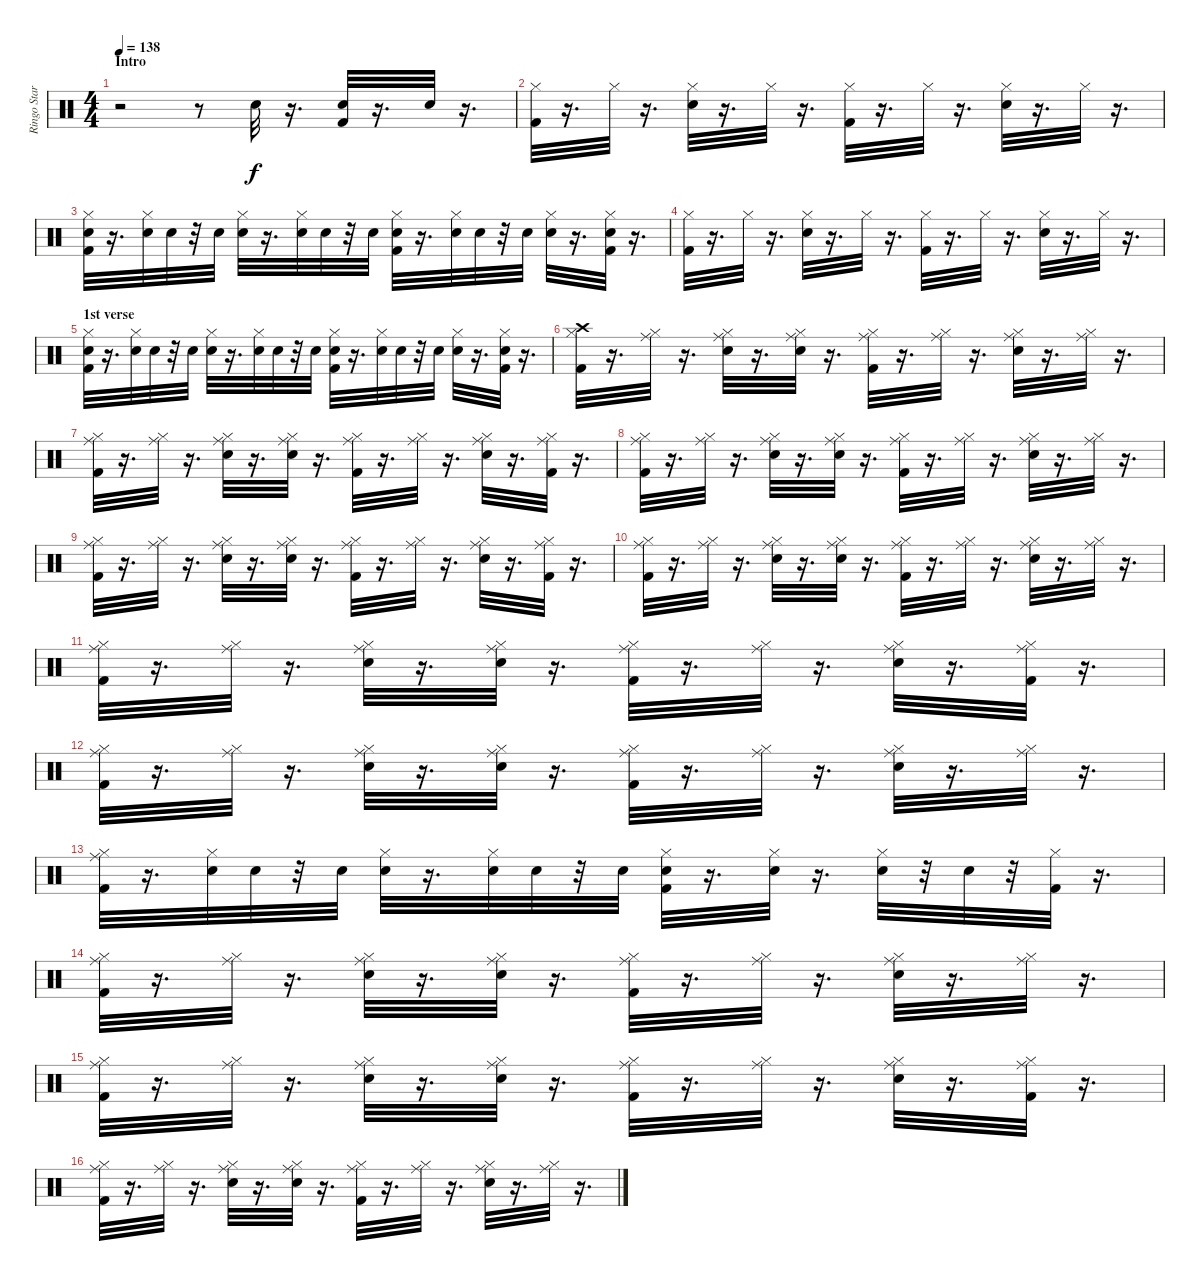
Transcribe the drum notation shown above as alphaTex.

\track ("Ringo Starr" "Ringo Star") {instrument percussion}
\staff {score}
\articulation defaults
\ts (4 4)
\section ("" "Intro")
\tempo 138
\clef neutral
\ks c
r.2{dy f} r.8 "Snare (hit) 2".32 r.16{d} ("Kick (hit) 2" "Snare (hit) 2").32 r.16{d} "Snare (hit) 2".32 r.16{d} |
("Kick (hit) 2" "Hi-Hat (closed)").32 r.16{d} "Hi-Hat (closed)".32 r.16{d} ("Snare (hit) 2" "Hi-Hat (closed)").32 r.16{d} "Hi-Hat (closed)".32 r.16{d} ("Kick (hit) 2" "Hi-Hat (closed)").32 r.16{d} "Hi-Hat (closed)".32 r.16{d} ("Snare (hit) 2" "Hi-Hat (closed)").32 r.16{d} "Hi-Hat (closed)".32 r.16{d} |
("Kick (hit) 2" "Snare (hit) 2" "Hi-Hat (closed)").32 r.16{d} ("Snare (hit) 2" "Hi-Hat (closed)").32 "Snare (hit) 2".32 r.32 "Snare (hit) 2".32 ("Snare (hit) 2" "Hi-Hat (closed)").32 r.16{d} ("Snare (hit) 2" "Hi-Hat (closed)").32 "Snare (hit) 2".32 r.32 "Snare (hit) 2".32 ("Kick (hit) 2" "Snare (hit) 2" "Hi-Hat (closed)").32 r.16{d} ("Snare (hit) 2" "Hi-Hat (closed)").32 "Snare (hit) 2".32 r.32 "Snare (hit) 2".32 ("Snare (hit) 2" "Hi-Hat (closed)").32 r.16{d} ("Kick (hit) 2" "Snare (hit) 2" "Hi-Hat (closed)").32 r.16{d} |
("Kick (hit) 2" "Hi-Hat (closed)").32 r.16{d} "Hi-Hat (closed)".32 r.16{d} ("Snare (hit) 2" "Hi-Hat (closed)").32 r.16{d} "Hi-Hat (closed)".32 r.16{d} ("Kick (hit) 2" "Hi-Hat (closed)").32 r.16{d} "Hi-Hat (closed)".32 r.16{d} ("Snare (hit) 2" "Hi-Hat (closed)").32 r.16{d} "Hi-Hat (closed)".32 r.16{d} |
\section ("" "1st verse")
("Kick (hit) 2" "Snare (hit) 2" "Hi-Hat (closed)").32 r.16{d} ("Snare (hit) 2" "Hi-Hat (closed)").32 "Snare (hit) 2".32 r.32 "Snare (hit) 2".32 ("Snare (hit) 2" "Hi-Hat (closed)").32 r.16{d} ("Snare (hit) 2" "Hi-Hat (closed)").32 "Snare (hit) 2".32 r.32 "Snare (hit) 2".32 ("Kick (hit) 2" "Snare (hit) 2" "Hi-Hat (closed)").32 r.16{d} ("Snare (hit) 2" "Hi-Hat (closed)").32 "Snare (hit) 2".32 r.32 "Snare (hit) 2".32 ("Snare (hit) 2" "Hi-Hat (closed)").32 r.16{d} ("Kick (hit) 2" "Snare (hit) 2" "Hi-Hat (closed)").32 r.16{d} |
("Kick (hit) 2" "Hi-Hat (closed)" "Crash high (hit)").32 r.16{d} ("Hi-Hat (closed)" "Ride (middle)").32 r.16{d} ("Snare (hit) 2" "Ride (middle)" "Hi-Hat (closed)").32 r.16{d} ("Snare (hit) 2" "Ride (middle)" "Hi-Hat (closed)").32 r.16{d} ("Kick (hit) 2" "Ride (middle)" "Hi-Hat (closed)").32 r.16{d} ("Hi-Hat (closed)" "Ride (middle)").32 r.16{d} ("Snare (hit) 2" "Ride (middle)" "Hi-Hat (closed)").32 r.16{d} ("Hi-Hat (closed)" "Ride (middle)").32 r.16{d} |
("Kick (hit) 2" "Ride (middle)" "Hi-Hat (closed)").32 r.16{d} ("Hi-Hat (closed)" "Ride (middle)").32 r.16{d} ("Snare (hit) 2" "Ride (middle)" "Hi-Hat (closed)").32 r.16{d} ("Snare (hit) 2" "Ride (middle)" "Hi-Hat (closed)").32 r.16{d} ("Kick (hit) 2" "Ride (middle)" "Hi-Hat (closed)").32 r.16{d} ("Hi-Hat (closed)" "Ride (middle)").32 r.16{d} ("Snare (hit) 2" "Ride (middle)" "Hi-Hat (closed)").32 r.16{d} ("Kick (hit) 2" "Ride (middle)" "Hi-Hat (closed)").32 r.16{d} |
("Kick (hit) 2" "Ride (middle)" "Hi-Hat (closed)").32 r.16{d} ("Hi-Hat (closed)" "Ride (middle)").32 r.16{d} ("Snare (hit) 2" "Ride (middle)" "Hi-Hat (closed)").32 r.16{d} ("Snare (hit) 2" "Ride (middle)" "Hi-Hat (closed)").32 r.16{d} ("Kick (hit) 2" "Ride (middle)" "Hi-Hat (closed)").32 r.16{d} ("Hi-Hat (closed)" "Ride (middle)").32 r.16{d} ("Snare (hit) 2" "Ride (middle)" "Hi-Hat (closed)").32 r.16{d} ("Hi-Hat (closed)" "Ride (middle)").32 r.16{d} |
("Kick (hit) 2" "Ride (middle)" "Hi-Hat (closed)").32 r.16{d} ("Hi-Hat (closed)" "Ride (middle)").32 r.16{d} ("Snare (hit) 2" "Ride (middle)" "Hi-Hat (closed)").32 r.16{d} ("Snare (hit) 2" "Ride (middle)" "Hi-Hat (closed)").32 r.16{d} ("Kick (hit) 2" "Ride (middle)" "Hi-Hat (closed)").32 r.16{d} ("Hi-Hat (closed)" "Ride (middle)").32 r.16{d} ("Snare (hit) 2" "Ride (middle)" "Hi-Hat (closed)").32 r.16{d} ("Kick (hit) 2" "Ride (middle)" "Hi-Hat (closed)").32 r.16{d} |
("Kick (hit) 2" "Hi-Hat (closed)" "Ride (middle)").32 r.16{d} ("Hi-Hat (closed)" "Ride (middle)").32 r.16{d} ("Snare (hit) 2" "Ride (middle)" "Hi-Hat (closed)").32 r.16{d} ("Snare (hit) 2" "Ride (middle)" "Hi-Hat (closed)").32 r.16{d} ("Kick (hit) 2" "Ride (middle)" "Hi-Hat (closed)").32 r.16{d} ("Hi-Hat (closed)" "Ride (middle)").32 r.16{d} ("Snare (hit) 2" "Ride (middle)" "Hi-Hat (closed)").32 r.16{d} ("Hi-Hat (closed)" "Ride (middle)").32 r.16{d} |
("Kick (hit) 2" "Ride (middle)" "Hi-Hat (closed)").32 r.16{d} ("Hi-Hat (closed)" "Ride (middle)").32 r.16{d} ("Snare (hit) 2" "Ride (middle)" "Hi-Hat (closed)").32 r.16{d} ("Snare (hit) 2" "Ride (middle)" "Hi-Hat (closed)").32 r.16{d} ("Kick (hit) 2" "Ride (middle)" "Hi-Hat (closed)").32 r.16{d} ("Hi-Hat (closed)" "Ride (middle)").32 r.16{d} ("Snare (hit) 2" "Ride (middle)" "Hi-Hat (closed)").32 r.16{d} ("Kick (hit) 2" "Ride (middle)" "Hi-Hat (closed)").32 r.16{d} |
("Kick (hit) 2" "Hi-Hat (closed)" "Ride (middle)").32 r.16{d} ("Hi-Hat (closed)" "Ride (middle)").32 r.16{d} ("Snare (hit) 2" "Ride (middle)" "Hi-Hat (closed)").32 r.16{d} ("Snare (hit) 2" "Ride (middle)" "Hi-Hat (closed)").32 r.16{d} ("Kick (hit) 2" "Ride (middle)" "Hi-Hat (closed)").32 r.16{d} ("Hi-Hat (closed)" "Ride (middle)").32 r.16{d} ("Snare (hit) 2" "Ride (middle)" "Hi-Hat (closed)").32 r.16{d} ("Hi-Hat (closed)" "Ride (middle)").32 r.16{d} |
("Kick (hit) 2" "Ride (middle)" "Hi-Hat (closed)").32 r.16{d} ("Snare (hit) 2" "Hi-Hat (closed)").32 "Snare (hit) 2".32 r.32 "Snare (hit) 2".32 ("Snare (hit) 2" "Hi-Hat (closed)").32 r.16{d} ("Snare (hit) 2" "Hi-Hat (closed)").32 "Snare (hit) 2".32 r.32 "Snare (hit) 2".32 ("Kick (hit) 2" "Snare (hit) 2" "Hi-Hat (closed)").32 r.16{d} ("Snare (hit) 2" "Hi-Hat (closed)").32 r.16{d} ("Snare (hit) 2" "Hi-Hat (closed)").32 r.32 "Snare (hit) 2".32 r.32 ("Kick (hit) 2" "Hi-Hat (closed)").32 r.16{d} |
("Kick (hit) 2" "Hi-Hat (closed)" "Ride (middle)").32 r.16{d} ("Hi-Hat (closed)" "Ride (middle)").32 r.16{d} ("Snare (hit) 2" "Ride (middle)" "Hi-Hat (closed)").32 r.16{d} ("Snare (hit) 2" "Ride (middle)" "Hi-Hat (closed)").32 r.16{d} ("Kick (hit) 2" "Ride (middle)" "Hi-Hat (closed)").32 r.16{d} ("Hi-Hat (closed)" "Ride (middle)").32 r.16{d} ("Snare (hit) 2" "Ride (middle)" "Hi-Hat (closed)").32 r.16{d} ("Hi-Hat (closed)" "Ride (middle)").32 r.16{d} |
("Kick (hit) 2" "Ride (middle)" "Hi-Hat (closed)").32 r.16{d} ("Hi-Hat (closed)" "Ride (middle)").32 r.16{d} ("Snare (hit) 2" "Ride (middle)" "Hi-Hat (closed)").32 r.16{d} ("Snare (hit) 2" "Ride (middle)" "Hi-Hat (closed)").32 r.16{d} ("Kick (hit) 2" "Ride (middle)" "Hi-Hat (closed)").32 r.16{d} ("Hi-Hat (closed)" "Ride (middle)").32 r.16{d} ("Snare (hit) 2" "Ride (middle)" "Hi-Hat (closed)").32 r.16{d} ("Kick (hit) 2" "Ride (middle)" "Hi-Hat (closed)").32 r.16{d} |
("Kick (hit) 2" "Hi-Hat (closed)" "Ride (middle)").32 r.16{d} ("Hi-Hat (closed)" "Ride (middle)").32 r.16{d} ("Snare (hit) 2" "Ride (middle)" "Hi-Hat (closed)").32 r.16{d} ("Snare (hit) 2" "Ride (middle)" "Hi-Hat (closed)").32 r.16{d} ("Kick (hit) 2" "Ride (middle)" "Hi-Hat (closed)").32 r.16{d} ("Hi-Hat (closed)" "Ride (middle)").32 r.16{d} ("Snare (hit) 2" "Ride (middle)" "Hi-Hat (closed)").32 r.16{d} ("Hi-Hat (closed)" "Ride (middle)").32 r.16{d}
